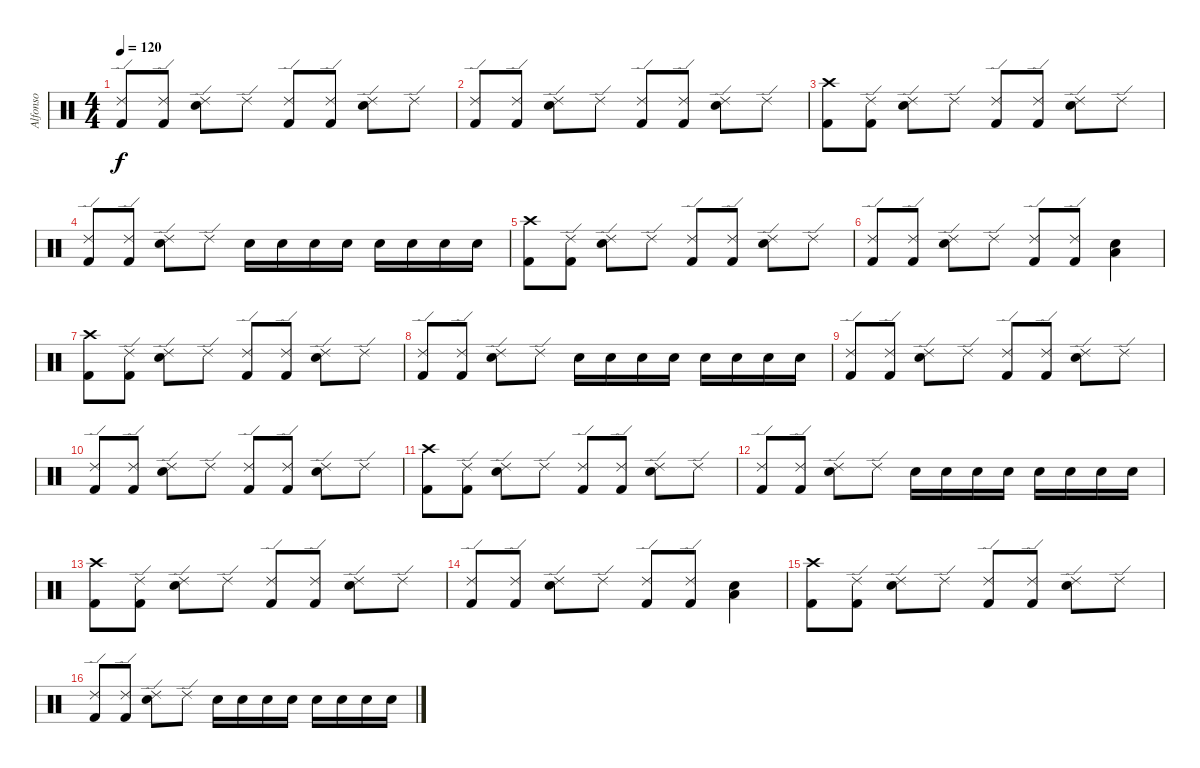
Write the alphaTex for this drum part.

\track ("Alfonso" "Alfonso") {instrument percussion}
\staff {score}
\articulation defaults
\ts (4 4)
\tempo 120
\clef neutral
\ks c
("Ride (edge) 2" "Kick (hit) 2").8{dy f} ("Ride (edge) 2" "Kick (hit) 2").8 ("Ride (edge) 2" "Electric Snare (hit)").8 "Ride (edge) 2".8 ("Ride (edge) 2" "Kick (hit) 2").8 ("Ride (edge) 2" "Kick (hit) 2").8 ("Ride (edge) 2" "Electric Snare (hit)").8 "Ride (edge) 2".8 |
("Ride (edge) 2" "Kick (hit) 2").8 ("Ride (edge) 2" "Kick (hit) 2").8 ("Ride (edge) 2" "Electric Snare (hit)").8 "Ride (edge) 2".8 ("Ride (edge) 2" "Kick (hit) 2").8 ("Ride (edge) 2" "Kick (hit) 2").8 ("Ride (edge) 2" "Electric Snare (hit)").8 "Ride (edge) 2".8 |
("Crash high (hit)" "Kick (hit) 2").8 ("Ride (edge) 2" "Kick (hit) 2").8 ("Ride (edge) 2" "Electric Snare (hit)").8 "Ride (edge) 2".8 ("Ride (edge) 2" "Kick (hit) 2").8 ("Ride (edge) 2" "Kick (hit) 2").8 ("Ride (edge) 2" "Electric Snare (hit)").8 "Ride (edge) 2".8 |
("Ride (edge) 2" "Kick (hit) 2").8 ("Ride (edge) 2" "Kick (hit) 2").8 ("Ride (edge) 2" "Electric Snare (hit)").8 "Ride (edge) 2".8 "Electric Snare (hit)".16 "Electric Snare (hit)".16 "Electric Snare (hit)".16 "Electric Snare (hit)".16 "Electric Snare (hit)".16 "Electric Snare (hit)".16 "Electric Snare (hit)".16 "Electric Snare (hit)".16 |
("Crash high (hit)" "Kick (hit) 2").8 ("Ride (edge) 2" "Kick (hit) 2").8 ("Ride (edge) 2" "Electric Snare (hit)").8 "Ride (edge) 2".8 ("Ride (edge) 2" "Kick (hit) 2").8 ("Ride (edge) 2" "Kick (hit) 2").8 ("Ride (edge) 2" "Electric Snare (hit)").8 "Ride (edge) 2".8 |
("Ride (edge) 2" "Kick (hit) 2").8 ("Ride (edge) 2" "Kick (hit) 2").8 ("Ride (edge) 2" "Electric Snare (hit)").8 "Ride (edge) 2".8 ("Ride (edge) 2" "Kick (hit) 2").8 ("Ride (edge) 2" "Kick (hit) 2").8 ("Low Floor Tom (hit)" "Electric Snare (hit)").4 |
("Crash high (hit)" "Kick (hit) 2").8 ("Ride (edge) 2" "Kick (hit) 2").8 ("Ride (edge) 2" "Electric Snare (hit)").8 "Ride (edge) 2".8 ("Ride (edge) 2" "Kick (hit) 2").8 ("Ride (edge) 2" "Kick (hit) 2").8 ("Ride (edge) 2" "Electric Snare (hit)").8 "Ride (edge) 2".8 |
("Ride (edge) 2" "Kick (hit) 2").8 ("Ride (edge) 2" "Kick (hit) 2").8 ("Ride (edge) 2" "Electric Snare (hit)").8 "Ride (edge) 2".8 "Electric Snare (hit)".16 "Electric Snare (hit)".16 "Electric Snare (hit)".16 "Electric Snare (hit)".16 "Electric Snare (hit)".16 "Electric Snare (hit)".16 "Electric Snare (hit)".16 "Electric Snare (hit)".16 |
("Ride (edge) 2" "Kick (hit) 2").8 ("Ride (edge) 2" "Kick (hit) 2").8 ("Ride (edge) 2" "Electric Snare (hit)").8 "Ride (edge) 2".8 ("Ride (edge) 2" "Kick (hit) 2").8 ("Ride (edge) 2" "Kick (hit) 2").8 ("Ride (edge) 2" "Electric Snare (hit)").8 "Ride (edge) 2".8 |
("Ride (edge) 2" "Kick (hit) 2").8 ("Ride (edge) 2" "Kick (hit) 2").8 ("Ride (edge) 2" "Electric Snare (hit)").8 "Ride (edge) 2".8 ("Ride (edge) 2" "Kick (hit) 2").8 ("Ride (edge) 2" "Kick (hit) 2").8 ("Ride (edge) 2" "Electric Snare (hit)").8 "Ride (edge) 2".8 |
("Crash high (hit)" "Kick (hit) 2").8 ("Ride (edge) 2" "Kick (hit) 2").8 ("Ride (edge) 2" "Electric Snare (hit)").8 "Ride (edge) 2".8 ("Ride (edge) 2" "Kick (hit) 2").8 ("Ride (edge) 2" "Kick (hit) 2").8 ("Ride (edge) 2" "Electric Snare (hit)").8 "Ride (edge) 2".8 |
("Ride (edge) 2" "Kick (hit) 2").8 ("Ride (edge) 2" "Kick (hit) 2").8 ("Ride (edge) 2" "Electric Snare (hit)").8 "Ride (edge) 2".8 "Electric Snare (hit)".16 "Electric Snare (hit)".16 "Electric Snare (hit)".16 "Electric Snare (hit)".16 "Electric Snare (hit)".16 "Electric Snare (hit)".16 "Electric Snare (hit)".16 "Electric Snare (hit)".16 |
("Crash high (hit)" "Kick (hit) 2").8 ("Ride (edge) 2" "Kick (hit) 2").8 ("Ride (edge) 2" "Electric Snare (hit)").8 "Ride (edge) 2".8 ("Ride (edge) 2" "Kick (hit) 2").8 ("Ride (edge) 2" "Kick (hit) 2").8 ("Ride (edge) 2" "Electric Snare (hit)").8 "Ride (edge) 2".8 |
("Ride (edge) 2" "Kick (hit) 2").8 ("Ride (edge) 2" "Kick (hit) 2").8 ("Ride (edge) 2" "Electric Snare (hit)").8 "Ride (edge) 2".8 ("Ride (edge) 2" "Kick (hit) 2").8 ("Ride (edge) 2" "Kick (hit) 2").8 ("Low Floor Tom (hit)" "Electric Snare (hit)").4 |
("Crash high (hit)" "Kick (hit) 2").8 ("Ride (edge) 2" "Kick (hit) 2").8 ("Ride (edge) 2" "Electric Snare (hit)").8 "Ride (edge) 2".8 ("Ride (edge) 2" "Kick (hit) 2").8 ("Ride (edge) 2" "Kick (hit) 2").8 ("Ride (edge) 2" "Electric Snare (hit)").8 "Ride (edge) 2".8 |
("Ride (edge) 2" "Kick (hit) 2").8 ("Ride (edge) 2" "Kick (hit) 2").8 ("Ride (edge) 2" "Electric Snare (hit)").8 "Ride (edge) 2".8 "Electric Snare (hit)".16 "Electric Snare (hit)".16 "Electric Snare (hit)".16 "Electric Snare (hit)".16 "Electric Snare (hit)".16 "Electric Snare (hit)".16 "Electric Snare (hit)".16 "Electric Snare (hit)".16
